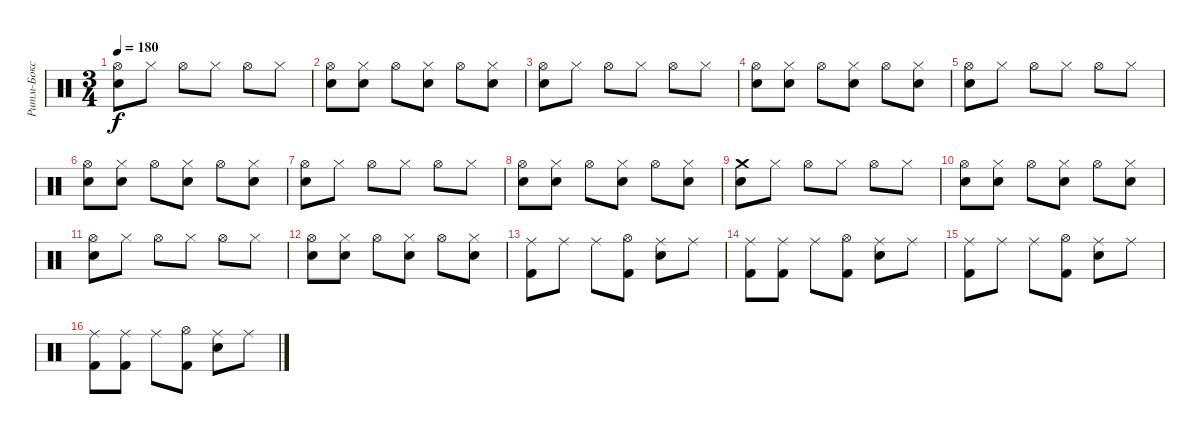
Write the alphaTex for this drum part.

\track ("Ритм-Бокс" "Ритм-Бокс") {instrument percussion}
\staff {score}
\articulation defaults
\ts (3 4)
\tempo 180
\clef neutral
\ks c
("Hi-Hat (open)" "Electric Snare (hit)").8{dy f} "Hi-Hat (closed)".8 "Hi-Hat (open)".8 "Hi-Hat (closed)".8 "Hi-Hat (open)".8 "Hi-Hat (closed)".8 |
("Hi-Hat (open)" "Electric Snare (hit)").8 ("Hi-Hat (closed)" "Electric Snare (hit)").8 "Hi-Hat (open)".8 ("Hi-Hat (closed)" "Electric Snare (hit)").8 "Hi-Hat (open)".8 ("Hi-Hat (closed)" "Electric Snare (hit)").8 |
("Hi-Hat (open)" "Electric Snare (hit)").8 "Hi-Hat (closed)".8 "Hi-Hat (open)".8 "Hi-Hat (closed)".8 "Hi-Hat (open)".8 "Hi-Hat (closed)".8 |
("Hi-Hat (open)" "Electric Snare (hit)").8 ("Hi-Hat (closed)" "Electric Snare (hit)").8 "Hi-Hat (open)".8 ("Hi-Hat (closed)" "Electric Snare (hit)").8 "Hi-Hat (open)".8 ("Hi-Hat (closed)" "Electric Snare (hit)").8 |
("Hi-Hat (open)" "Electric Snare (hit)").8 "Hi-Hat (closed)".8 "Hi-Hat (open)".8 "Hi-Hat (closed)".8 "Hi-Hat (open)".8 "Hi-Hat (closed)".8 |
("Hi-Hat (open)" "Electric Snare (hit)").8 ("Hi-Hat (closed)" "Electric Snare (hit)").8 "Hi-Hat (open)".8 ("Hi-Hat (closed)" "Electric Snare (hit)").8 "Hi-Hat (open)".8 ("Hi-Hat (closed)" "Electric Snare (hit)").8 |
("Hi-Hat (open)" "Electric Snare (hit)").8 "Hi-Hat (closed)".8 "Hi-Hat (open)".8 "Hi-Hat (closed)".8 "Hi-Hat (open)".8 "Hi-Hat (closed)".8 |
("Hi-Hat (open)" "Electric Snare (hit)").8 ("Hi-Hat (closed)" "Electric Snare (hit)").8 "Hi-Hat (open)".8 ("Hi-Hat (closed)" "Electric Snare (hit)").8 "Hi-Hat (open)".8 ("Hi-Hat (closed)" "Electric Snare (hit)").8 |
("Crash medium (hit)" "Electric Snare (hit)").8 "Hi-Hat (closed)".8 "Hi-Hat (open)".8 "Hi-Hat (closed)".8 "Hi-Hat (open)".8 "Hi-Hat (closed)".8 |
("Hi-Hat (open)" "Electric Snare (hit)").8 ("Hi-Hat (closed)" "Electric Snare (hit)").8 "Hi-Hat (open)".8 ("Hi-Hat (closed)" "Electric Snare (hit)").8 "Hi-Hat (open)".8 ("Hi-Hat (closed)" "Electric Snare (hit)").8 |
("Hi-Hat (open)" "Electric Snare (hit)").8 "Hi-Hat (closed)".8 "Hi-Hat (open)".8 "Hi-Hat (closed)".8 "Hi-Hat (open)".8 "Hi-Hat (closed)".8 |
("Hi-Hat (open)" "Electric Snare (hit)").8 ("Hi-Hat (closed)" "Electric Snare (hit)").8 "Hi-Hat (open)".8 ("Hi-Hat (closed)" "Electric Snare (hit)").8 "Hi-Hat (open)".8 ("Hi-Hat (closed)" "Electric Snare (hit)").8 |
("Ride (middle)" "Kick (hit) 2").8 "Ride (middle)".8 "Ride (middle)".8 ("Hi-Hat (open)" "Kick (hit) 2").8 ("Ride (middle)" "Snare (hit) 2").8 "Ride (middle)".8 |
("Ride (middle)" "Kick (hit) 2").8 ("Ride (middle)" "Kick (hit) 2").8 "Ride (middle)".8 ("Hi-Hat (open)" "Kick (hit) 2").8 ("Ride (middle)" "Snare (hit) 2").8 "Ride (middle)".8 |
("Ride (middle)" "Kick (hit) 2").8 "Ride (middle)".8 "Ride (middle)".8 ("Hi-Hat (open)" "Kick (hit) 2").8 ("Ride (middle)" "Snare (hit) 2").8 "Ride (middle)".8 |
("Ride (middle)" "Kick (hit) 2").8 ("Ride (middle)" "Kick (hit) 2").8 "Ride (middle)".8 ("Hi-Hat (open)" "Kick (hit) 2").8 ("Ride (middle)" "Snare (hit) 2").8 "Ride (middle)".8
